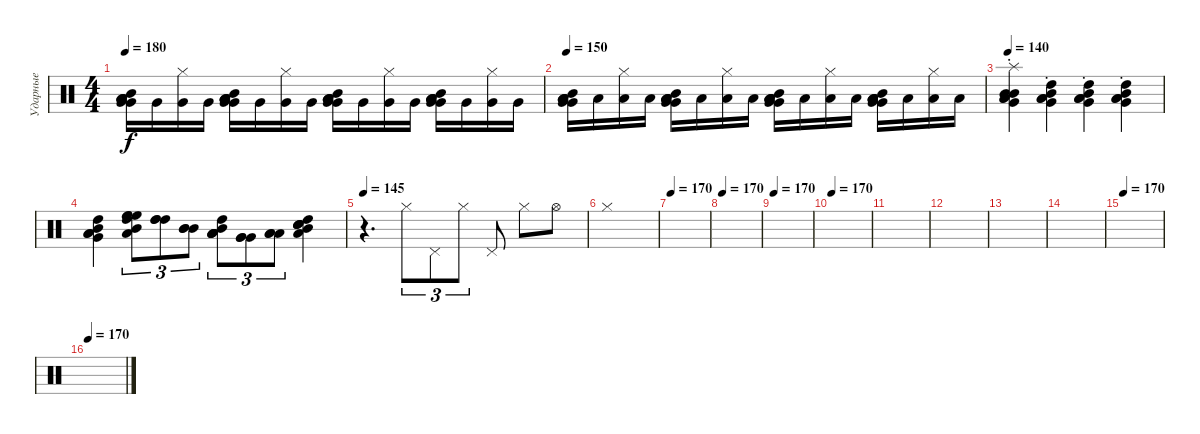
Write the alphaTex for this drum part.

\track ("Ударные" "Ударные") {instrument percussion}
\staff {score}
\articulation defaults
\ts (4 4)
\tempo 180
\clef neutral
\ks c
("Low Floor Tom (hit)" "Very Low Tom (hit)" "Low Tom (hit)" "Very Low Tom (hit)" "Low Tom (hit)" "Mid Tom (hit)").16{dy f} "Very Low Tom (hit)".16 ("Very Low Tom (hit)" "Hi-Hat (closed)").16 "Very Low Tom (hit)".16 ("Low Floor Tom (hit)" "Very Low Tom (hit)" "Low Tom (hit)" "Very Low Tom (hit)" "Low Tom (hit)" "Mid Tom (hit)").16 "Very Low Tom (hit)".16 ("Very Low Tom (hit)" "Hi-Hat (closed)").16 "Very Low Tom (hit)".16 ("Low Floor Tom (hit)" "Very Low Tom (hit)" "Low Tom (hit)" "Very Low Tom (hit)" "Low Tom (hit)" "Mid Tom (hit)").16 "Very Low Tom (hit)".16 ("Very Low Tom (hit)" "Hi-Hat (closed)").16 "Very Low Tom (hit)".16 ("Low Floor Tom (hit)" "Very Low Tom (hit)" "Low Tom (hit)" "Very Low Tom (hit)" "Low Tom (hit)" "Mid Tom (hit)").16 "Very Low Tom (hit)".16 ("Very Low Tom (hit)" "Hi-Hat (closed)").16 "Very Low Tom (hit)".16 |
\tempo 150
("Low Floor Tom (hit)" "Very Low Tom (hit)" "Low Tom (hit)" "Very Low Tom (hit)" "Low Tom (hit)" "Mid Tom (hit)").16 "Low Floor Tom (hit)".16 ("Low Floor Tom (hit)" "Hi-Hat (closed)").16 "Low Floor Tom (hit)".16 ("Low Floor Tom (hit)" "Very Low Tom (hit)" "Low Tom (hit)" "Very Low Tom (hit)" "Low Tom (hit)" "Mid Tom (hit)").16 "Low Floor Tom (hit)".16 ("Low Floor Tom (hit)" "Hi-Hat (closed)").16 "Low Floor Tom (hit)".16 ("Low Floor Tom (hit)" "Very Low Tom (hit)" "Low Tom (hit)" "Very Low Tom (hit)" "Low Tom (hit)" "Mid Tom (hit)").16 "Low Floor Tom (hit)".16 ("Low Floor Tom (hit)" "Hi-Hat (closed)").16 "Low Floor Tom (hit)".16 ("Low Floor Tom (hit)" "Very Low Tom (hit)" "Low Tom (hit)" "Very Low Tom (hit)" "Low Tom (hit)" "Mid Tom (hit)").16 "Low Floor Tom (hit)".16 ("Low Floor Tom (hit)" "Hi-Hat (closed)").16 "Low Floor Tom (hit)".16 |
\tempo 140
("Splash (hit)" "Low Floor Tom (hit)" "Very Low Tom (hit)" "Low Tom (hit)" "Mid Tom (hit)"{st} "Mid Tom (hit)").4 ("Low Floor Tom (hit)" "Very Low Tom (hit)" "Low Tom (hit)" "Mid Tom (hit)"{st} "High Tom (hit)").4 ("Low Floor Tom (hit)" "Very Low Tom (hit)" "Low Tom (hit)" "Mid Tom (hit)"{st} "High Tom (hit)").4 ("Low Floor Tom (hit)" "Very Low Tom (hit)" "Low Tom (hit)" "Mid Tom (hit)"{st} "High Tom (hit)").4 |
("Low Floor Tom (hit)" "Very Low Tom (hit)" "Low Tom (hit)" "Mid Tom (hit)" "High Tom (hit)").4 ("High Floor Tom (hit)" "High Floor Tom (hit)" "High Floor Tom (hit)" "Low Tom (hit)" "Mid Tom (hit)" "High Tom (hit)").8{tu (3 2) balance 13} ("High Tom (hit)" "High Tom (hit)" "High Tom (hit)").8{tu (3 2) balance 11} ("Mid Tom (hit)" "Mid Tom (hit)" "Mid Tom (hit)").8{tu (3 2) balance 9} ("Low Tom (hit)" "Low Tom (hit)" "Low Tom (hit)" "Low Tom (hit)" "Mid Tom (hit)" "High Tom (hit)").8{tu (3 2) balance 7} ("Very Low Tom (hit)" "Very Low Tom (hit)" "Very Low Tom (hit)").8{tu (3 2) balance 5} ("Low Floor Tom (hit)" "Low Floor Tom (hit)" "Low Floor Tom (hit)").8{tu (3 2) balance 3} ("Electric Snare (hit)" "Electric Snare (hit)" "Electric Snare (hit)" "Low Tom (hit)" "Mid Tom (hit)" "High Tom (hit)").4{balance 8} |
\tempo 145
r.4{d} "Hi-Hat (closed)".8{tu (3 2)} "Pedal Hi-Hat (hit)".8{tu (3 2)} "Hi-Hat (closed)".8{tu (3 2)} "Pedal Hi-Hat (hit)".8 "Hi-Hat (closed)".8 "Hi-Hat (open)".8 |
"Hi-Hat (closed)".1 |
\tempo 170
|
\tempo 170
|
\tempo 170
|
\tempo 170
|
|
|
|
|
\tempo 170
|
\tempo 170
